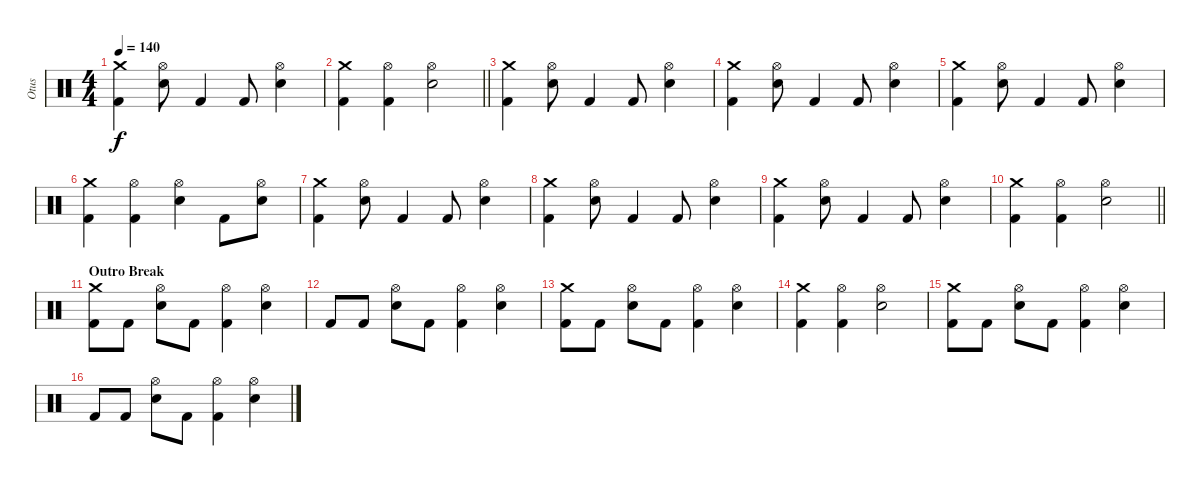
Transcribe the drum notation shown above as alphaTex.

\track ("Otus" "Otus") {instrument percussion}
\staff {score}
\articulation defaults
\ts (4 4)
\tempo 140
\clef neutral
\ks c
("Crash medium (hit)" "Kick (hit) 2").4{dy f} ("Hi-Hat (open)" "Electric Snare (hit)").8 "Kick (hit) 2".4 "Kick (hit) 2".8 ("Hi-Hat (open)" "Electric Snare (hit)").4 |
\barLineRight lightlight
("Crash medium (hit)" "Kick (hit) 2").4 ("Hi-Hat (open)" "Kick (hit) 2").4 ("Hi-Hat (open)" "Electric Snare (hit)").2 |
("Crash medium (hit)" "Kick (hit) 2").4 ("Hi-Hat (open)" "Electric Snare (hit)").8 "Kick (hit) 2".4 "Kick (hit) 2".8 ("Hi-Hat (open)" "Electric Snare (hit)").4 |
("Crash medium (hit)" "Kick (hit) 2").4 ("Hi-Hat (open)" "Electric Snare (hit)").8 "Kick (hit) 2".4 "Kick (hit) 2".8 ("Hi-Hat (open)" "Electric Snare (hit)").4 |
("Crash medium (hit)" "Kick (hit) 2").4 ("Hi-Hat (open)" "Electric Snare (hit)").8 "Kick (hit) 2".4 "Kick (hit) 2".8 ("Hi-Hat (open)" "Electric Snare (hit)").4 |
("Crash medium (hit)" "Kick (hit) 2").4 ("Hi-Hat (open)" "Kick (hit) 2").4 ("Hi-Hat (open)" "Electric Snare (hit)").4 "Kick (hit) 2".8 ("Hi-Hat (open)" "Electric Snare (hit)").8 |
("Crash medium (hit)" "Kick (hit) 2").4 ("Hi-Hat (open)" "Electric Snare (hit)").8 "Kick (hit) 2".4 "Kick (hit) 2".8 ("Hi-Hat (open)" "Electric Snare (hit)").4 |
("Crash medium (hit)" "Kick (hit) 2").4 ("Hi-Hat (open)" "Electric Snare (hit)").8 "Kick (hit) 2".4 "Kick (hit) 2".8 ("Hi-Hat (open)" "Electric Snare (hit)").4 |
("Crash medium (hit)" "Kick (hit) 2").4 ("Hi-Hat (open)" "Electric Snare (hit)").8 "Kick (hit) 2".4 "Kick (hit) 2".8 ("Hi-Hat (open)" "Electric Snare (hit)").4 |
\barLineRight lightlight
("Crash medium (hit)" "Kick (hit) 2").4 ("Hi-Hat (open)" "Kick (hit) 2").4 ("Hi-Hat (open)" "Electric Snare (hit)").2 |
\section ("" "Outro Break")
("Crash medium (hit)" "Kick (hit) 2").8 "Kick (hit) 2".8 ("Hi-Hat (open)" "Electric Snare (hit)").8 "Kick (hit) 2".8 ("Hi-Hat (open)" "Kick (hit) 2").4 ("Hi-Hat (open)" "Electric Snare (hit)").4 |
"Kick (hit) 2".8 "Kick (hit) 2".8 ("Hi-Hat (open)" "Electric Snare (hit)").8 "Kick (hit) 2".8 ("Hi-Hat (open)" "Kick (hit) 2").4 ("Hi-Hat (open)" "Electric Snare (hit)").4 |
("Crash medium (hit)" "Kick (hit) 2").8 "Kick (hit) 2".8 ("Hi-Hat (open)" "Electric Snare (hit)").8 "Kick (hit) 2".8 ("Hi-Hat (open)" "Kick (hit) 2").4 ("Hi-Hat (open)" "Electric Snare (hit)").4 |
("Crash medium (hit)" "Kick (hit) 2").4 ("Hi-Hat (open)" "Kick (hit) 2").4 ("Hi-Hat (open)" "Electric Snare (hit)").2 |
("Crash medium (hit)" "Kick (hit) 2").8 "Kick (hit) 2".8 ("Hi-Hat (open)" "Electric Snare (hit)").8 "Kick (hit) 2".8 ("Hi-Hat (open)" "Kick (hit) 2").4 ("Hi-Hat (open)" "Electric Snare (hit)").4 |
"Kick (hit) 2".8 "Kick (hit) 2".8 ("Hi-Hat (open)" "Electric Snare (hit)").8 "Kick (hit) 2".8 ("Hi-Hat (open)" "Kick (hit) 2").4 ("Hi-Hat (open)" "Electric Snare (hit)").4
